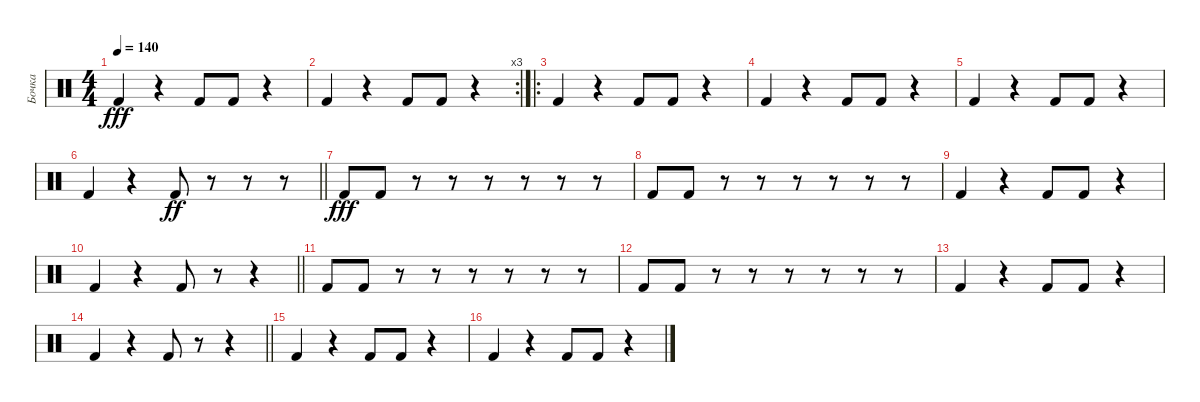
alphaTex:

\track ("Бочка" "Бочка") {instrument percussion}
\staff {score}
\articulation defaults
\ts (4 4)
\tempo 140
\clef neutral
\ks c "Kick (hit) 2".4{dy fff}
r.4 "Kick (hit) 2".8 "Kick (hit) 2".8 r.4 |
\rc 3 "Kick (hit) 2".4
r.4 "Kick (hit) 2".8 "Kick (hit) 2".8 r.4 |
\ro "Kick (hit) 2".4
r.4 "Kick (hit) 2".8 "Kick (hit) 2".8 r.4 |
"Kick (hit) 2".4 r.4 "Kick (hit) 2".8 "Kick (hit) 2".8 r.4 |
"Kick (hit) 2".4 r.4 "Kick (hit) 2".8 "Kick (hit) 2".8 r.4 |
\barLineRight lightlight "Kick (hit) 2".4
r.4 "Kick (hit) 2".8{dy ff} r.8 r.8 r.8 |
"Kick (hit) 2".8{dy fff} "Kick (hit) 2".8 r.8 r.8 r.8 r.8 r.8 r.8 |
"Kick (hit) 2".8 "Kick (hit) 2".8 r.8 r.8 r.8 r.8 r.8 r.8 |
"Kick (hit) 2".4 r.4 "Kick (hit) 2".8 "Kick (hit) 2".8 r.4 |
\barLineRight lightlight "Kick (hit) 2".4
r.4 "Kick (hit) 2".8 r.8 r.4 |
"Kick (hit) 2".8 "Kick (hit) 2".8 r.8 r.8 r.8 r.8 r.8 r.8 |
"Kick (hit) 2".8 "Kick (hit) 2".8 r.8 r.8 r.8 r.8 r.8 r.8 |
"Kick (hit) 2".4 r.4 "Kick (hit) 2".8 "Kick (hit) 2".8 r.4 |
\barLineRight lightlight "Kick (hit) 2".4
r.4 "Kick (hit) 2".8 r.8 r.4 |
"Kick (hit) 2".4 r.4 "Kick (hit) 2".8 "Kick (hit) 2".8 r.4 |
"Kick (hit) 2".4 r.4 "Kick (hit) 2".8 "Kick (hit) 2".8 r.4
